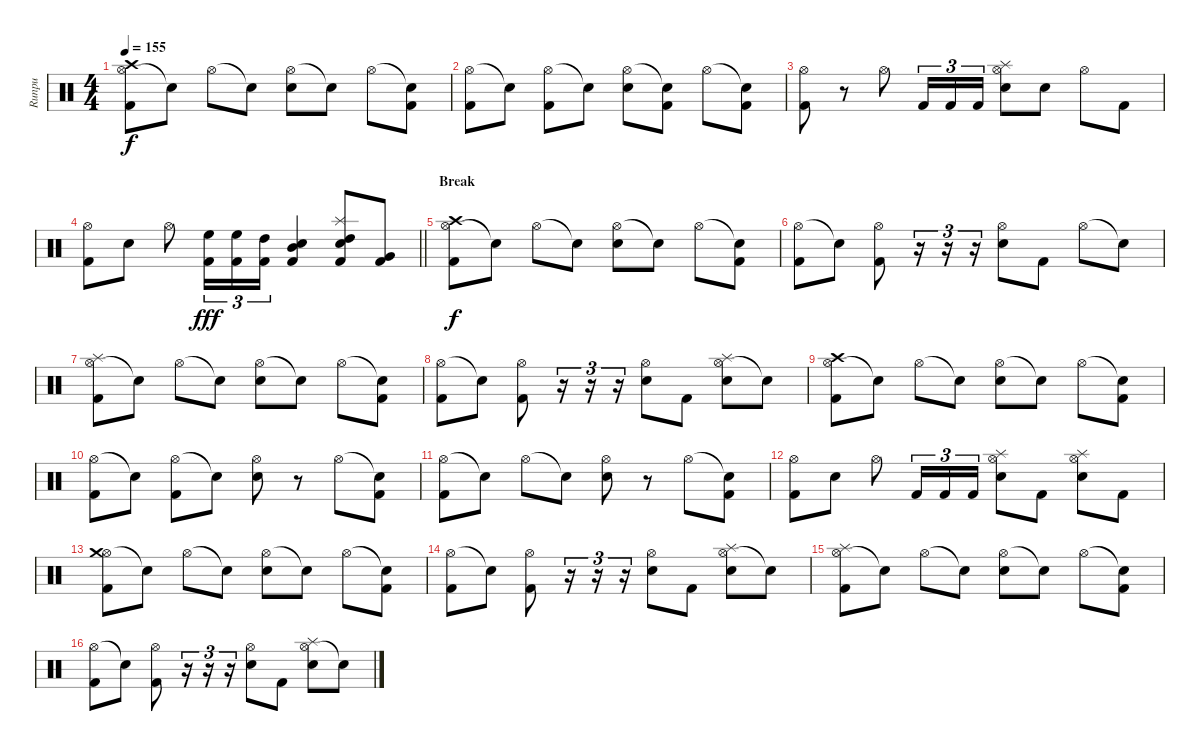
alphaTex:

\track ("Runpu" "Runpu") {instrument percussion}
\staff {score}
\articulation defaults
\ts (4 4)
\tempo 155
\clef neutral
\ks c
("Hi-Hat (open)" "Crash high (hit)" "Kick (hit) 2").8{dy f} "Snare (hit)"{t}.8 "Hi-Hat (open)".8 "Snare (hit)"{t}.8 ("Hi-Hat (open)" "Snare (hit) 2").8 "Snare (hit)"{t}.8 "Hi-Hat (open)".8 ("Snare (hit)"{t} "Kick (hit) 2").8 |
("Hi-Hat (open)" "Kick (hit) 2").8 "Snare (hit)"{t}.8 ("Hi-Hat (open)" "Kick (hit) 2").8 "Snare (hit)"{t}.8 ("Hi-Hat (open)" "Snare (hit) 2").8 ("Snare (hit)"{t} "Kick (hit) 2").8 "Hi-Hat (open)".8 ("Snare (hit)"{t} "Kick (hit) 2").8 |
("Hi-Hat (open)" "Kick (hit) 2").8 r.8 "Hi-Hat (open)".8 "Kick (hit) 2".16{tu (3 2)} "Kick (hit) 2".16{tu (3 2)} "Kick (hit) 2".16{tu (3 2)} ("Hi-Hat (open)" "Splash (hit)" "Snare (hit) 2").8 "Snare (hit) 2".8 "Hi-Hat (open)".8 "Kick (hit) 2".8 |
\barLineRight lightlight
("Hi-Hat (open)" "Kick (hit) 2").8 "Snare (hit) 2".8 "Hi-Hat (open)".8 ("High Floor Tom (hit)" "Kick (hit) 2").16{tu (3 2) dy fff} ("High Floor Tom (hit)" "Kick (hit) 2").16{tu (3 2)} ("High Tom (hit)" "Kick (hit) 2").16{tu (3 2)} ("Mid Tom (hit)" "Electric Snare (hit)" "Kick (hit) 2").4 ("Splash (hit)" "High Tom (hit)" "Snare (hit) 2" "Kick (hit) 2").8 ("Very Low Tom (hit)" "Kick (hit) 2").8 |
\section ("" "Break")
("Hi-Hat (open)" "Crash high (hit)" "Kick (hit) 2").8{dy f} "Snare (hit)"{t}.8 "Hi-Hat (open)".8 "Snare (hit)"{t}.8 ("Hi-Hat (open)" "Snare (hit) 2").8 "Snare (hit)"{t}.8 "Hi-Hat (open)".8 ("Snare (hit)"{t} "Kick (hit) 2").8 |
("Hi-Hat (open)" "Kick (hit) 2").8 "Snare (hit)"{t}.8 ("Hi-Hat (open)" "Kick (hit) 2").8 r.16{tu (3 2)} r.16{tu (3 2)} r.16{tu (3 2)} ("Hi-Hat (open)" "Snare (hit) 2").8 "Kick (hit) 2".8 "Hi-Hat (open)".8 "Snare (hit)"{t}.8 |
("Hi-Hat (open)" "Splash (hit)" "Kick (hit) 2").8 "Snare (hit)"{t}.8 "Hi-Hat (open)".8 "Snare (hit)"{t}.8 ("Hi-Hat (open)" "Snare (hit) 2").8 "Snare (hit)"{t}.8 "Hi-Hat (open)".8 ("Snare (hit)"{t} "Kick (hit) 2").8 |
("Hi-Hat (open)" "Kick (hit) 2").8 "Snare (hit)"{t}.8 ("Hi-Hat (open)" "Kick (hit) 2").8 r.16{tu (3 2)} r.16{tu (3 2)} r.16{tu (3 2)} ("Hi-Hat (open)" "Snare (hit) 2").8 "Kick (hit) 2".8 ("Hi-Hat (open)" "Splash (hit)" "Snare (hit) 2").8 "Snare (hit)"{t}.8 |
("Hi-Hat (open)" "Crash high (hit)" "Kick (hit) 2").8 "Snare (hit)"{t}.8 "Hi-Hat (open)".8 "Snare (hit)"{t}.8 ("Hi-Hat (open)" "Snare (hit) 2").8 "Snare (hit)"{t}.8 "Hi-Hat (open)".8 ("Snare (hit)"{t} "Kick (hit) 2").8 |
("Hi-Hat (open)" "Kick (hit) 2").8 "Snare (hit)"{t}.8 ("Hi-Hat (open)" "Kick (hit) 2").8 "Snare (hit)"{t}.8 ("Hi-Hat (open)" "Snare (hit) 2").8 r.8 "Hi-Hat (open)".8 ("Snare (hit)"{t} "Kick (hit) 2").8 |
("Hi-Hat (open)" "Kick (hit) 2").8 "Snare (hit)"{t}.8 "Hi-Hat (open)".8 "Snare (hit)"{t}.8 ("Hi-Hat (open)" "Snare (hit) 2").8 r.8 "Hi-Hat (open)".8 ("Snare (hit)"{t} "Kick (hit) 2").8 |
("Hi-Hat (open)" "Kick (hit) 2").8 "Snare (hit) 2".8 "Hi-Hat (open)".8 "Kick (hit) 2".16{tu (3 2)} "Kick (hit) 2".16{tu (3 2)} "Kick (hit) 2".16{tu (3 2)} ("Hi-Hat (open)" "Splash (hit)" "Snare (hit) 2").8 "Kick (hit) 2".8 ("Hi-Hat (open)" "Splash (hit)" "Snare (hit) 2").8 "Kick (hit) 2".8 |
("Hi-Hat (open)" "Crash medium (hit)" "Kick (hit) 2").8 "Snare (hit)"{t}.8 "Hi-Hat (open)".8 "Snare (hit)"{t}.8 ("Hi-Hat (open)" "Snare (hit) 2").8 "Snare (hit)"{t}.8 "Hi-Hat (open)".8 ("Snare (hit)"{t} "Kick (hit) 2").8 |
("Hi-Hat (open)" "Kick (hit) 2").8 "Snare (hit)"{t}.8 ("Hi-Hat (open)" "Kick (hit) 2").8 r.16{tu (3 2)} r.16{tu (3 2)} r.16{tu (3 2)} ("Hi-Hat (open)" "Snare (hit) 2").8 "Kick (hit) 2".8 ("Hi-Hat (open)" "Splash (hit)" "Snare (hit) 2").8 "Snare (hit)"{t}.8 |
("Hi-Hat (open)" "Splash (hit)" "Kick (hit) 2").8 "Snare (hit)"{t}.8 "Hi-Hat (open)".8 "Snare (hit)"{t}.8 ("Hi-Hat (open)" "Snare (hit) 2").8 "Snare (hit)"{t}.8 "Hi-Hat (open)".8 ("Snare (hit)"{t} "Kick (hit) 2").8 |
("Hi-Hat (open)" "Kick (hit) 2").8 "Snare (hit)"{t}.8 ("Hi-Hat (open)" "Kick (hit) 2").8 r.16{tu (3 2)} r.16{tu (3 2)} r.16{tu (3 2)} ("Hi-Hat (open)" "Snare (hit) 2").8 "Kick (hit) 2".8 ("Hi-Hat (open)" "Splash (hit)" "Snare (hit) 2").8 "Snare (hit)"{t}.8
